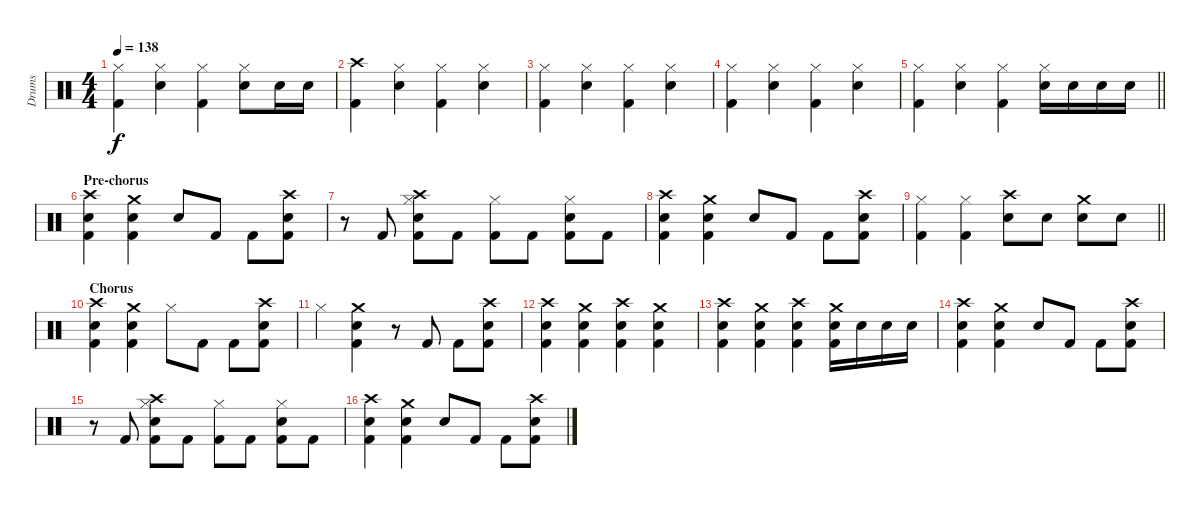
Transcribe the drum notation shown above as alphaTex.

\track ("Drums" "Drums") {instrument percussion}
\staff {score}
\articulation defaults
\ts (4 4)
\tempo 138
\clef neutral
\ks c
("Hi-Hat (closed)" "Kick (hit) 2").4{dy f} ("Snare (hit) 2" "Hi-Hat (closed)").4 ("Hi-Hat (closed)" "Kick (hit) 2").4 ("Snare (hit) 2" "Hi-Hat (closed)").8 "Snare (hit) 2".16 "Snare (hit) 2".16 |
("Crash high (hit)" "Kick (hit) 2").4 ("Snare (hit) 2" "Hi-Hat (closed)").4 ("Hi-Hat (closed)" "Kick (hit) 2").4 ("Snare (hit) 2" "Hi-Hat (closed)").4 |
("Hi-Hat (closed)" "Kick (hit) 2").4 ("Snare (hit) 2" "Hi-Hat (closed)").4 ("Hi-Hat (closed)" "Kick (hit) 2").4 ("Snare (hit) 2" "Hi-Hat (closed)").4 |
("Hi-Hat (closed)" "Kick (hit) 2").4 ("Snare (hit) 2" "Hi-Hat (closed)").4 ("Hi-Hat (closed)" "Kick (hit) 2").4 ("Snare (hit) 2" "Hi-Hat (closed)").4 |
\barLineRight lightlight
("Hi-Hat (closed)" "Kick (hit) 2").4 ("Snare (hit) 2" "Hi-Hat (closed)").4 ("Hi-Hat (closed)" "Kick (hit) 2").4 ("Snare (hit) 2" "Hi-Hat (closed)").16 "Snare (hit) 2".16 "Snare (hit) 2".16 "Snare (hit) 2".16 |
\section ("" "Pre-chorus")
("Crash high (hit)" "Snare (hit) 2" "Kick (hit) 2").4 ("Crash medium (hit)" "Snare (hit) 2" "Kick (hit) 2").4 "Snare (hit) 2".8 "Kick (hit) 2".8 "Kick (hit) 2".8 ("Crash high (hit)" "Snare (hit) 2" "Kick (hit) 2").8 |
r.8 "Kick (hit) 2".8 ("Crash high (hit)" "Snare (hit) 2" "Hi-Hat (closed)" "Kick (hit) 2").8 "Kick (hit) 2".8 ("Hi-Hat (closed)" "Kick (hit) 2").8 "Kick (hit) 2".8 ("Snare (hit) 2" "Hi-Hat (closed)" "Kick (hit) 2").8 "Kick (hit) 2".8 |
("Crash high (hit)" "Snare (hit) 2" "Kick (hit) 2").4 ("Crash medium (hit)" "Snare (hit) 2" "Kick (hit) 2").4 "Snare (hit) 2".8 "Kick (hit) 2".8 "Kick (hit) 2".8 ("Crash high (hit)" "Snare (hit) 2" "Kick (hit) 2").8 |
\barLineRight lightlight
("Hi-Hat (closed)" "Kick (hit) 2").4 ("Hi-Hat (closed)" "Kick (hit) 2").4 ("Crash high (hit)" "Snare (hit) 2").8 "Snare (hit) 2".8 ("Crash medium (hit)" "Snare (hit) 2").8 "Snare (hit) 2".8 |
\section ("" "Chorus")
("Crash high (hit)" "Snare (hit) 2" "Kick (hit) 2").4 ("Crash medium (hit)" "Snare (hit) 2" "Kick (hit) 2").4 "Hi-Hat (closed)".8 "Kick (hit) 2".8 "Kick (hit) 2".8 ("Crash high (hit)" "Snare (hit) 2" "Kick (hit) 2").8 |
"Hi-Hat (closed)".4 ("Crash medium (hit)" "Snare (hit) 2" "Kick (hit) 2").4 r.8 "Kick (hit) 2".8 "Kick (hit) 2".8 ("Crash high (hit)" "Snare (hit) 2" "Kick (hit) 2").8 |
("Crash high (hit)" "Snare (hit) 2" "Kick (hit) 2").4 ("Crash medium (hit)" "Snare (hit) 2" "Kick (hit) 2").4 ("Crash high (hit)" "Snare (hit) 2" "Kick (hit) 2").4 ("Crash medium (hit)" "Snare (hit) 2" "Kick (hit) 2").4 |
("Crash high (hit)" "Snare (hit) 2" "Kick (hit) 2").4 ("Crash medium (hit)" "Snare (hit) 2" "Kick (hit) 2").4 ("Crash high (hit)" "Snare (hit) 2" "Kick (hit) 2").4 ("Crash medium (hit)" "Snare (hit) 2" "Kick (hit) 2").16 "Snare (hit) 2".16 "Snare (hit) 2".16 "Snare (hit) 2".16 |
("Crash high (hit)" "Snare (hit) 2" "Kick (hit) 2").4 ("Crash medium (hit)" "Snare (hit) 2" "Kick (hit) 2").4 "Snare (hit) 2".8 "Kick (hit) 2".8 "Kick (hit) 2".8 ("Crash high (hit)" "Snare (hit) 2" "Kick (hit) 2").8 |
r.8 "Kick (hit) 2".8 ("Crash high (hit)" "Snare (hit) 2" "Hi-Hat (closed)" "Kick (hit) 2").8 "Kick (hit) 2".8 ("Hi-Hat (closed)" "Kick (hit) 2").8 "Kick (hit) 2".8 ("Snare (hit) 2" "Hi-Hat (closed)" "Kick (hit) 2").8 "Kick (hit) 2".8 |
("Crash high (hit)" "Snare (hit) 2" "Kick (hit) 2").4 ("Crash medium (hit)" "Snare (hit) 2" "Kick (hit) 2").4 "Snare (hit) 2".8 "Kick (hit) 2".8 "Kick (hit) 2".8 ("Crash high (hit)" "Snare (hit) 2" "Kick (hit) 2").8
